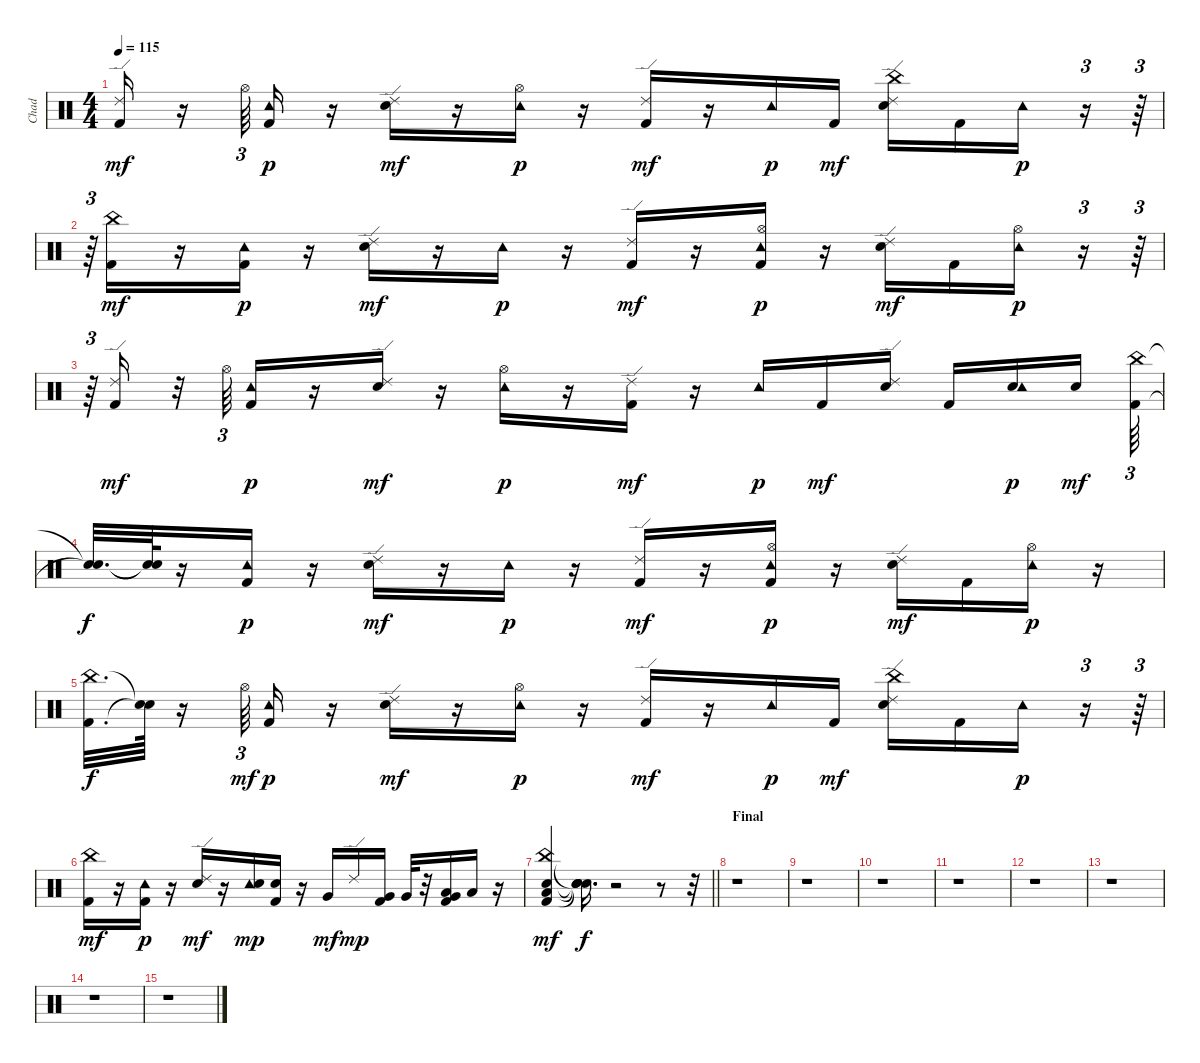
\track ("Chad" "Chad") {instrument percussion}
\staff {score}
\articulation defaults
\ts (4 4)
\tempo 115
\clef neutral
\ks c
("Kick (hit) 2" "Ride (edge) 2").16{dy mf} r.16 "Hi-Hat (open)".64{tu (3 2)} ("Kick (hit) 2" "Tambourine (hit)").16{dy p} r.16 ("Snare (hit) 2" "Ride (edge) 2").16{dy mf} r.16 ("Hi-Hat (open)" "Tambourine (hit)").16{dy p} r.16 ("Kick (hit) 2" "Ride (edge) 2").16{dy mf} r.16 "Tambourine (hit)".16{dy p} "Kick (hit) 2".16{dy mf} ("Snare (hit) 2" "China (hit)" "Ride (edge) 2").16 "Kick (hit) 2".16 "Tambourine (hit)".16{dy p} r.16{tu (3 2)} r.64{tu (3 2)} |
r.64{tu (3 2)} ("Kick (hit) 2" "China (hit)").16{dy mf} r.16 ("Kick (hit) 2" "Tambourine (hit)").16{dy p} r.16 ("Snare (hit) 2" "Ride (edge) 2").16{dy mf} r.16 "Tambourine (hit)".16{dy p} r.16 ("Kick (hit) 2" "Ride (edge) 2").16{dy mf} r.16 ("Kick (hit) 2" "Hi-Hat (open)" "Tambourine (hit)").16{dy p} r.16 ("Snare (hit) 2" "Ride (edge) 2").16{dy mf} "Kick (hit) 2".16 ("Hi-Hat (open)" "Tambourine (hit)").16{dy p} r.16{tu (3 2)} r.64{tu (3 2)} |
r.64{tu (3 2)} ("Kick (hit) 2" "Ride (edge) 2").16{dy mf} r.32 "Hi-Hat (open)".64{tu (3 2)} ("Kick (hit) 2" "Tambourine (hit)").16{dy p} r.16 ("Snare (hit) 2" "Ride (edge) 2").16{dy mf} r.16 ("Hi-Hat (open)" "Tambourine (hit)").16{dy p} r.16 ("Kick (hit) 2" "Ride (edge) 2").16{dy mf} r.16 "Tambourine (hit)".16{dy p} "Kick (hit) 2".16{dy mf} ("Snare (hit) 2" "Ride (edge) 2").16 "Kick (hit) 2".16 ("Snare (hit) 2" "Tambourine (hit)").16{dy p} "Snare (hit) 2".16{dy mf beam splitsecondary} ("Kick (hit) 2" "China (hit)").64{tu (3 2)} |
("Snare (hit)"{t} "Snare (hit)"{t}).32{d dy f} ("Snare (hit)"{t} "Snare (hit)"{t}).64 r.16 ("Kick (hit) 2" "Tambourine (hit)").16{dy p} r.16 ("Snare (hit) 2" "Ride (edge) 2").16{dy mf} r.16 "Tambourine (hit)".16{dy p} r.16 ("Kick (hit) 2" "Ride (edge) 2").16{dy mf} r.16 ("Kick (hit) 2" "Hi-Hat (open)" "Tambourine (hit)").16{dy p} r.16 ("Snare (hit) 2" "Ride (edge) 2").16{dy mf} "Kick (hit) 2".16 ("Hi-Hat (open)" "Tambourine (hit)").16{dy p} r.16 |
("Kick (hit) 2" "China (hit)").32{d dy f} ("Snare (hit)"{t} "Snare (hit)"{t}).64 r.16 "Hi-Hat (open)".64{tu (3 2) dy mf} ("Kick (hit) 2" "Tambourine (hit)").16{dy p} r.16 ("Snare (hit) 2" "Ride (edge) 2").16{dy mf} r.16 ("Hi-Hat (open)" "Tambourine (hit)").16{dy p} r.16 ("Kick (hit) 2" "Ride (edge) 2").16{dy mf} r.16 "Tambourine (hit)".16{dy p} "Kick (hit) 2".16{dy mf} ("Snare (hit) 2" "China (hit)" "Ride (edge) 2").16 "Kick (hit) 2".16 "Tambourine (hit)".16{dy p} r.16{tu (3 2)} r.64{tu (3 2)} |
("Kick (hit) 2" "China (hit)").16{dy mf} r.16 ("Kick (hit) 2" "Tambourine (hit)").16{dy p} r.16 ("Snare (hit) 2" "Ride (edge) 2").16{dy mf} r.16 ("Tambourine (hit)" "Snare (hit) 2").16{dy mp} ("Kick (hit) 2" "Snare (hit) 2").16 r.16 "Very Low Tom (hit)".16{dy mf} "Ride (edge) 2".16{dy mp} ("Kick (hit) 2" "Very Low Tom (hit)").16 "Very Low Tom (hit)".32 r.32 ("Kick (hit) 2" "Low Floor Tom (hit)" "Very Low Tom (hit)").16 "Low Floor Tom (hit)".16 r.16 |
\barLineRight lightlight
("Kick (hit) 2" "Snare (hit) 2" "Low Floor Tom (hit)" "China (hit)").4{dy mf} ("Snare (hit)"{t} "Snare (hit)"{t} "Snare (hit)"{t} "Snare (hit)"{t}).16{d dy f} r.2 r.8 r.32 |
\section ("" "Final")
r.1 |
r.1 |
r.1 |
r.1 |
r.1 |
r.1 |
r.1 |
r.1
